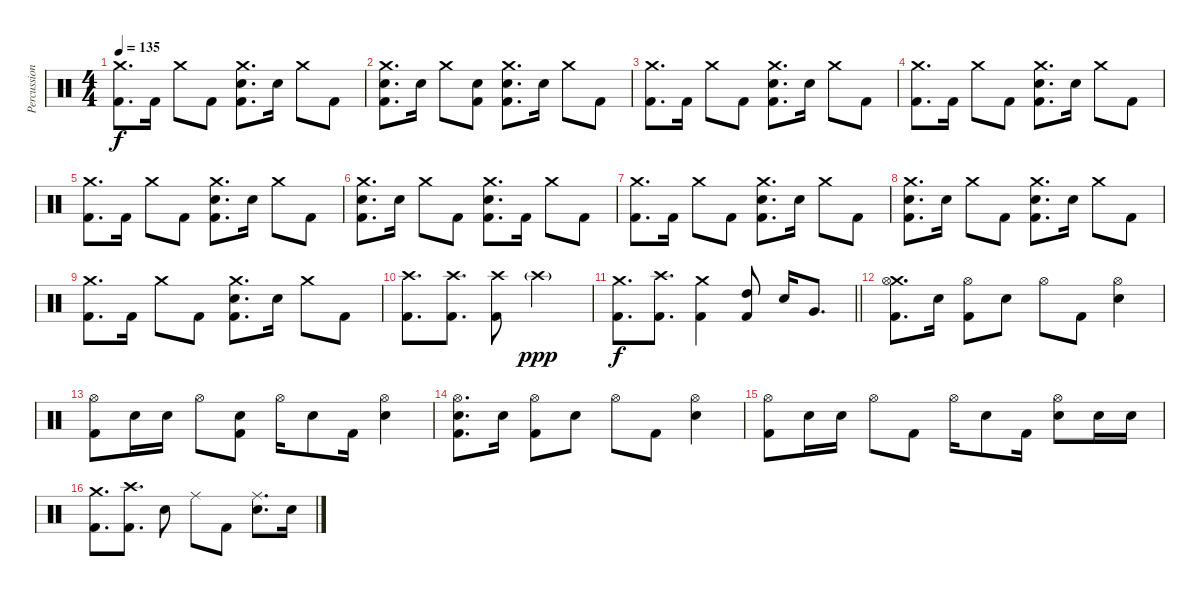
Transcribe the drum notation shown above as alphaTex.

\track ("Percussions" "Percussion") {instrument percussion}
\staff {score}
\articulation defaults
\ts (4 4)
\tempo 135
\clef neutral
\ks c
("Crash medium (hit)" "Kick (hit) 2").8{d dy f} "Kick (hit) 2".16 "Crash medium (hit)".8 "Kick (hit) 2".8 ("Crash medium (hit)" "Electric Snare (hit)" "Kick (hit) 2").8{d} "Electric Snare (hit)".16 "Crash medium (hit)".8 "Kick (hit) 2".8 |
("Crash medium (hit)" "Electric Snare (hit)" "Kick (hit) 2").8{d} "Electric Snare (hit)".16 "Crash medium (hit)".8 ("Electric Snare (hit)" "Kick (hit) 2").8 ("Crash medium (hit)" "Electric Snare (hit)" "Kick (hit) 2").8{d} "Electric Snare (hit)".16 "Crash medium (hit)".8 "Kick (hit) 2".8 |
("Crash medium (hit)" "Kick (hit) 2").8{d} "Kick (hit) 2".16 "Crash medium (hit)".8 "Kick (hit) 2".8 ("Crash medium (hit)" "Electric Snare (hit)" "Kick (hit) 2").8{d} "Electric Snare (hit)".16 "Crash medium (hit)".8 "Kick (hit) 2".8 |
("Crash medium (hit)" "Kick (hit) 2").8{d} "Kick (hit) 2".16 "Crash medium (hit)".8 "Kick (hit) 2".8 ("Crash medium (hit)" "Electric Snare (hit)" "Kick (hit) 2").8{d} "Electric Snare (hit)".16 "Crash medium (hit)".8 "Kick (hit) 2".8 |
("Crash medium (hit)" "Kick (hit) 2").8{d} "Kick (hit) 2".16 "Crash medium (hit)".8 "Kick (hit) 2".8 ("Crash medium (hit)" "Electric Snare (hit)" "Kick (hit) 2").8{d} "Electric Snare (hit)".16 "Crash medium (hit)".8 "Kick (hit) 2".8 |
("Crash medium (hit)" "Electric Snare (hit)" "Kick (hit) 2").8{d} "Electric Snare (hit)".16 "Crash medium (hit)".8 "Kick (hit) 2".8 ("Crash medium (hit)" "Electric Snare (hit)" "Kick (hit) 2").8{d} "Kick (hit) 2".16 "Crash medium (hit)".8 "Kick (hit) 2".8 |
("Crash medium (hit)" "Kick (hit) 2").8{d} "Kick (hit) 2".16 "Crash medium (hit)".8 "Kick (hit) 2".8 ("Crash medium (hit)" "Electric Snare (hit)" "Kick (hit) 2").8{d} "Electric Snare (hit)".16 "Crash medium (hit)".8 "Kick (hit) 2".8 |
("Crash medium (hit)" "Electric Snare (hit)" "Kick (hit) 2").8{d} "Electric Snare (hit)".16 "Crash medium (hit)".8 "Kick (hit) 2".8 ("Crash medium (hit)" "Electric Snare (hit)" "Kick (hit) 2").8{d} "Electric Snare (hit)".16 "Crash medium (hit)".8 "Kick (hit) 2".8 |
("Crash medium (hit)" "Kick (hit) 2").8{d} "Kick (hit) 2".16 "Crash medium (hit)".8 "Kick (hit) 2".8 ("Crash medium (hit)" "Electric Snare (hit)" "Kick (hit) 2").8{d} "Electric Snare (hit)".16 "Crash medium (hit)".8 "Kick (hit) 2".8 |
("Crash high (hit)" "Kick (hit) 2").8{d} ("Crash high (hit)" "Kick (hit) 2").8{d} ("Crash high (hit)" "Kick (hit) 2").8 "Crash high (hit)"{g}.2{dy ppp} |
\barLineRight lightlight
("Crash medium (hit)" "Kick (hit) 2").8{d dy f} ("Crash high (hit)" "Kick (hit) 2").8{d} ("Crash medium (hit)" "Kick (hit) 2").4 ("High Tom (hit)" "Kick (hit) 2").8 "Electric Snare (hit)".16 "Very Low Tom (hit)".8{d} |
("Crash medium (hit)" "Hi-Hat (open)" "Kick (hit) 2").8{d} "Electric Snare (hit)".16 ("Hi-Hat (open)" "Kick (hit) 2").8 "Electric Snare (hit)".8 "Hi-Hat (open)".8 "Kick (hit) 2".8 ("Hi-Hat (open)" "Electric Snare (hit)").4 |
("Hi-Hat (open)" "Kick (hit) 2").8 "Electric Snare (hit)".16 "Electric Snare (hit)".16 "Hi-Hat (open)".8 ("Electric Snare (hit)" "Kick (hit) 2").8 "Hi-Hat (open)".16 "Electric Snare (hit)".8 "Kick (hit) 2".16 ("Hi-Hat (open)" "Electric Snare (hit)").4 |
("Hi-Hat (open)" "Electric Snare (hit)" "Kick (hit) 2").8{d} "Electric Snare (hit)".16 ("Hi-Hat (open)" "Kick (hit) 2").8 "Electric Snare (hit)".8 "Hi-Hat (open)".8 "Kick (hit) 2".8 ("Hi-Hat (open)" "Electric Snare (hit)").4 |
("Hi-Hat (open)" "Kick (hit) 2").8 "Electric Snare (hit)".16 "Electric Snare (hit)".16 "Hi-Hat (open)".8 "Kick (hit) 2".8 "Hi-Hat (open)".16 "Electric Snare (hit)".8 "Kick (hit) 2".16 ("Hi-Hat (open)" "Electric Snare (hit)").8 "Electric Snare (hit)".16 "Electric Snare (hit)".16 |
("Crash medium (hit)" "Kick (hit) 2").8{d} ("Crash high (hit)" "Kick (hit) 2").8{d} "Electric Snare (hit)".8 "Ride (middle)".8 "Kick (hit) 2".8 ("Ride (middle)" "Electric Snare (hit)").8{d} "Electric Snare (hit)".16
